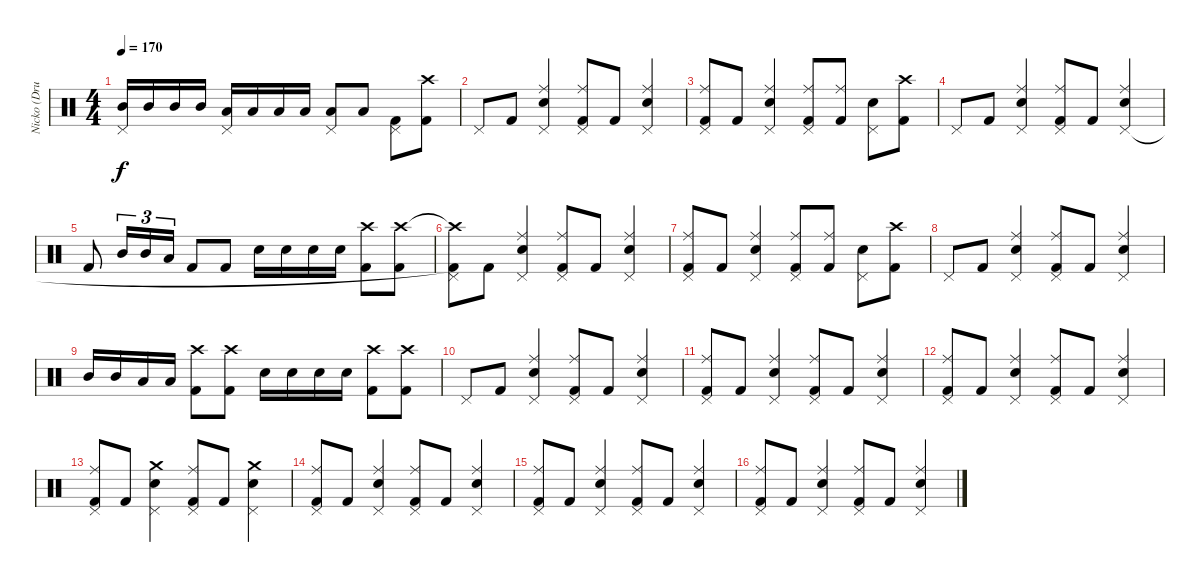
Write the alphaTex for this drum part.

\track ("Nicko (Drums)" "Nicko (Dru") {instrument percussion}
\staff {score}
\articulation defaults
\ts (4 4)
\tempo 170
\clef neutral
\ks c
("Mid Tom (hit)" "Pedal Hi-Hat (hit)").16{dy f} "Mid Tom (hit)".16 "Mid Tom (hit)".16 "Mid Tom (hit)".16 ("Low Tom (hit)" "Pedal Hi-Hat (hit)").16 "Low Tom (hit)".16 "Low Tom (hit)".16 "Low Tom (hit)".16 ("Low Floor Tom (hit)" "Pedal Hi-Hat (hit)").8 "Low Floor Tom (hit)".8 ("Pedal Hi-Hat (hit)" "Kick (hit) 2").8 ("Crash high (hit)" "Kick (hit) 2").8 |
"Pedal Hi-Hat (hit)".8 "Kick (hit) 2".8 ("Ride (middle)" "Snare (hit) 2" "Pedal Hi-Hat (hit)").4 ("Ride (middle)" "Pedal Hi-Hat (hit)" "Kick (hit) 2").8 "Kick (hit) 2".8 ("Ride (middle)" "Snare (hit) 2" "Pedal Hi-Hat (hit)").4 |
("Ride (middle)" "Pedal Hi-Hat (hit)" "Kick (hit) 2").8 "Kick (hit) 2".8 ("Ride (middle)" "Snare (hit) 2" "Pedal Hi-Hat (hit)").4 ("Ride (middle)" "Pedal Hi-Hat (hit)" "Kick (hit) 2").8 ("Ride (middle)" "Kick (hit) 2").8 ("Snare (hit) 2" "Pedal Hi-Hat (hit)").8 ("Crash high (hit)" "Kick (hit) 2").8 |
"Pedal Hi-Hat (hit)".8 "Kick (hit) 2".8 ("Ride (middle)" "Snare (hit) 2" "Pedal Hi-Hat (hit)").4 ("Ride (middle)" "Pedal Hi-Hat (hit)" "Kick (hit) 2").8 "Kick (hit) 2".8 ("Ride (middle)" "Snare (hit) 2" "Pedal Hi-Hat (hit)").4 |
"Kick (hit) 2".8 "Mid Tom (hit)".16{tu (3 2)} "Mid Tom (hit)".16{tu (3 2)} "Low Tom (hit)".16{tu (3 2)} "Kick (hit) 2".8 "Kick (hit) 2".8 "Snare (hit) 2".16 "Snare (hit) 2".16 "Snare (hit) 2".16 "Snare (hit) 2".16 ("Crash high (hit)" "Kick (hit) 2").8 ("Crash high (hit)" "Kick (hit) 2").8 |
("Crash high (hit)"{t} "Pedal Hi-Hat (hit)" "Kick (hit) 2"{t}).8 "Kick (hit) 2".8 ("Ride (middle)" "Snare (hit) 2" "Pedal Hi-Hat (hit)").4 ("Ride (middle)" "Pedal Hi-Hat (hit)" "Kick (hit) 2").8 "Kick (hit) 2".8 ("Ride (middle)" "Snare (hit) 2" "Pedal Hi-Hat (hit)").4 |
("Ride (middle)" "Pedal Hi-Hat (hit)" "Kick (hit) 2").8 "Kick (hit) 2".8 ("Ride (middle)" "Snare (hit) 2" "Pedal Hi-Hat (hit)").4 ("Ride (middle)" "Pedal Hi-Hat (hit)" "Kick (hit) 2").8 ("Ride (middle)" "Kick (hit) 2").8 ("Snare (hit) 2" "Pedal Hi-Hat (hit)").8 ("Crash high (hit)" "Kick (hit) 2").8 |
"Pedal Hi-Hat (hit)".8 "Kick (hit) 2".8 ("Ride (middle)" "Snare (hit) 2" "Pedal Hi-Hat (hit)").4 ("Ride (middle)" "Pedal Hi-Hat (hit)" "Kick (hit) 2").8 "Kick (hit) 2".8 ("Ride (middle)" "Snare (hit) 2" "Pedal Hi-Hat (hit)").4 |
"Mid Tom (hit)".16 "Mid Tom (hit)".16 "Low Tom (hit)".16 "Low Tom (hit)".16 ("Crash high (hit)" "Kick (hit) 2").8 ("Crash high (hit)" "Kick (hit) 2").8 "Snare (hit) 2".16 "Snare (hit) 2".16 "Snare (hit) 2".16 "Snare (hit) 2".16 ("Crash high (hit)" "Kick (hit) 2").8 ("Crash high (hit)" "Kick (hit) 2").8 |
"Pedal Hi-Hat (hit)".8 "Kick (hit) 2".8 ("Ride (middle)" "Snare (hit) 2" "Pedal Hi-Hat (hit)").4 ("Ride (middle)" "Pedal Hi-Hat (hit)" "Kick (hit) 2").8 "Kick (hit) 2".8 ("Ride (middle)" "Snare (hit) 2" "Pedal Hi-Hat (hit)").4 |
("Ride (middle)" "Pedal Hi-Hat (hit)" "Kick (hit) 2").8 "Kick (hit) 2".8 ("Ride (middle)" "Snare (hit) 2" "Pedal Hi-Hat (hit)").4 ("Ride (middle)" "Pedal Hi-Hat (hit)" "Kick (hit) 2").8 "Kick (hit) 2".8 ("Ride (middle)" "Snare (hit) 2" "Pedal Hi-Hat (hit)").4 |
("Ride (middle)" "Pedal Hi-Hat (hit)" "Kick (hit) 2").8 "Kick (hit) 2".8 ("Ride (middle)" "Snare (hit) 2" "Pedal Hi-Hat (hit)").4 ("Ride (middle)" "Pedal Hi-Hat (hit)" "Kick (hit) 2").8 "Kick (hit) 2".8 ("Ride (middle)" "Snare (hit) 2" "Pedal Hi-Hat (hit)").4 |
("Ride (middle)" "Pedal Hi-Hat (hit)" "Kick (hit) 2").8 "Kick (hit) 2".8 ("Crash medium (hit)" "Snare (hit) 2" "Pedal Hi-Hat (hit)").4 ("Ride (middle)" "Pedal Hi-Hat (hit)" "Kick (hit) 2").8 "Kick (hit) 2".8 ("Crash medium (hit)" "Snare (hit) 2" "Pedal Hi-Hat (hit)").4 |
("Ride (middle)" "Pedal Hi-Hat (hit)" "Kick (hit) 2").8 "Kick (hit) 2".8 ("Ride (middle)" "Snare (hit) 2" "Pedal Hi-Hat (hit)").4 ("Ride (middle)" "Pedal Hi-Hat (hit)" "Kick (hit) 2").8 "Kick (hit) 2".8 ("Ride (middle)" "Snare (hit) 2" "Pedal Hi-Hat (hit)").4 |
("Ride (middle)" "Pedal Hi-Hat (hit)" "Kick (hit) 2").8 "Kick (hit) 2".8 ("Ride (middle)" "Snare (hit) 2" "Pedal Hi-Hat (hit)").4 ("Ride (middle)" "Pedal Hi-Hat (hit)" "Kick (hit) 2").8 "Kick (hit) 2".8 ("Ride (middle)" "Snare (hit) 2" "Pedal Hi-Hat (hit)").4 |
("Ride (middle)" "Pedal Hi-Hat (hit)" "Kick (hit) 2").8 "Kick (hit) 2".8 ("Ride (middle)" "Snare (hit) 2" "Pedal Hi-Hat (hit)").4 ("Ride (middle)" "Pedal Hi-Hat (hit)" "Kick (hit) 2").8 "Kick (hit) 2".8 ("Ride (middle)" "Snare (hit) 2" "Pedal Hi-Hat (hit)").4
